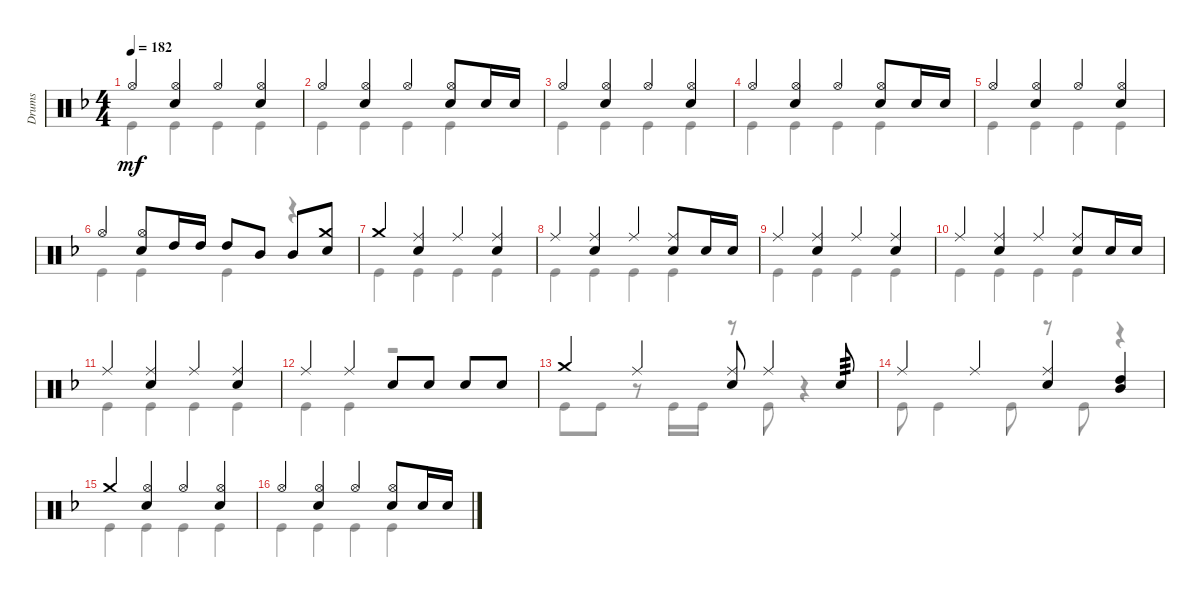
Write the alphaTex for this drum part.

\track ("Drums" "Drums") {instrument percussion}
\staff {score}
\articulation defaults
\voice
\ts (4 4)
\tempo 182
\clef neutral
\ks f "Hi-Hat (open)".4{dy mf}
("Hi-Hat (open)" "Snare (hit) 2").4 "Hi-Hat (open)".4 ("Hi-Hat (open)" "Snare (hit) 2").4 |
"Hi-Hat (open)".4 ("Hi-Hat (open)" "Snare (hit) 2").4 "Hi-Hat (open)".4 ("Hi-Hat (open)" "Snare (hit) 2").8 "Snare (hit) 2".16 "Snare (hit) 2".16 |
"Hi-Hat (open)".4 ("Hi-Hat (open)" "Snare (hit) 2").4 "Hi-Hat (open)".4 ("Hi-Hat (open)" "Snare (hit) 2").4 |
"Hi-Hat (open)".4 ("Hi-Hat (open)" "Snare (hit) 2").4 "Hi-Hat (open)".4 ("Hi-Hat (open)" "Snare (hit) 2").8 "Snare (hit) 2".16 "Snare (hit) 2".16 |
"Hi-Hat (open)".4 ("Hi-Hat (open)" "Snare (hit) 2").4 "Hi-Hat (open)".4 ("Hi-Hat (open)" "Snare (hit) 2").4 |
"Hi-Hat (open)".4 ("Hi-Hat (open)" "Snare (hit) 2").8 "High Tom (hit)".16 "High Tom (hit)".16 "High Tom (hit)".8 "Mid Tom (hit)".8 "Mid Tom (hit)".8 ("Snare (hit) 2" "Crash medium (hit)").8 |
"Crash medium (hit)".4 ("Ride (middle)" "Snare (hit) 2").4 "Ride (middle)".4 ("Ride (middle)" "Snare (hit) 2").4 |
"Ride (middle)".4 ("Ride (middle)" "Snare (hit) 2").4 "Ride (middle)".4 ("Ride (middle)" "Snare (hit) 2").8 "Snare (hit) 2".16 "Snare (hit) 2".16 |
"Ride (middle)".4 ("Ride (middle)" "Snare (hit) 2").4 "Ride (middle)".4 ("Ride (middle)" "Snare (hit) 2").4 |
"Ride (middle)".4 ("Ride (middle)" "Snare (hit) 2").4 "Ride (middle)".4 ("Ride (middle)" "Snare (hit) 2").8 "Snare (hit) 2".16 "Snare (hit) 2".16 |
"Ride (middle)".4 ("Ride (middle)" "Snare (hit) 2").4 "Ride (middle)".4 ("Ride (middle)" "Snare (hit) 2").4 |
"Ride (middle)".4 "Ride (middle)".4 "Snare (hit) 2".8 "Snare (hit) 2".8 "Snare (hit) 2".8 "Snare (hit) 2".8 |
"Crash medium (hit)".4 "Ride (middle)".4 ("Ride (middle)" "Snare (hit) 2").8 "Ride (middle)".4 "Snare (hit) 2".8{tp 3} |
"Ride (middle)".4 "Ride (middle)".4 ("Ride (middle)" "Snare (hit) 2").4 ("Mid Tom (hit)" "High Tom (hit)").4 |
"Crash medium (hit)".4 ("Hi-Hat (open)" "Snare (hit) 2").4 "Hi-Hat (open)".4 ("Snare (hit) 2" "Hi-Hat (open)").4 |
"Hi-Hat (open)".4 ("Hi-Hat (open)" "Snare (hit) 2").4 "Hi-Hat (open)".4 ("Hi-Hat (open)" "Snare (hit) 2").8 "Snare (hit) 2".16 "Snare (hit) 2".16
\voice
\clef neutral
\ottava regular
\simile none
\ks f "Kick (hit)".4{dy mf} "Kick (hit)".4 "Kick (hit)".4 "Kick (hit)".4
|
"Kick (hit)".4 "Kick (hit)".4 "Kick (hit)".4 "Kick (hit)".4 |
"Kick (hit)".4 "Kick (hit)".4 "Kick (hit)".4 "Kick (hit)".4 |
"Kick (hit)".4 "Kick (hit)".4 "Kick (hit)".4 "Kick (hit)".4 |
"Kick (hit)".4 "Kick (hit)".4 "Kick (hit)".4 "Kick (hit)".4 |
"Kick (hit)".4 "Kick (hit)".4 "Kick (hit)".4 r.4 |
"Kick (hit)".4 "Kick (hit)".4 "Kick (hit)".4 "Kick (hit)".4 |
"Kick (hit)".4 "Kick (hit)".4 "Kick (hit)".4 "Kick (hit)".4 |
"Kick (hit)".4 "Kick (hit)".4 "Kick (hit)".4 "Kick (hit)".4 |
"Kick (hit)".4 "Kick (hit)".4 "Kick (hit)".4 "Kick (hit)".4 |
"Kick (hit)".4 "Kick (hit)".4 "Kick (hit)".4 "Kick (hit)".4 |
"Kick (hit)".4 "Kick (hit)".4 r.2 |
"Kick (hit)".8 "Kick (hit)".8 r.8 "Kick (hit)".16 "Kick (hit)".16 r.8 "Kick (hit)".8 r.4 |
"Kick (hit)".8 "Kick (hit)".4 "Kick (hit)".8 r.8 "Kick (hit)".8 r.4 |
"Kick (hit)".4 "Kick (hit)".4 "Kick (hit)".4 "Kick (hit)".4 |
"Kick (hit)".4 "Kick (hit)".4 "Kick (hit)".4 "Kick (hit)".4
